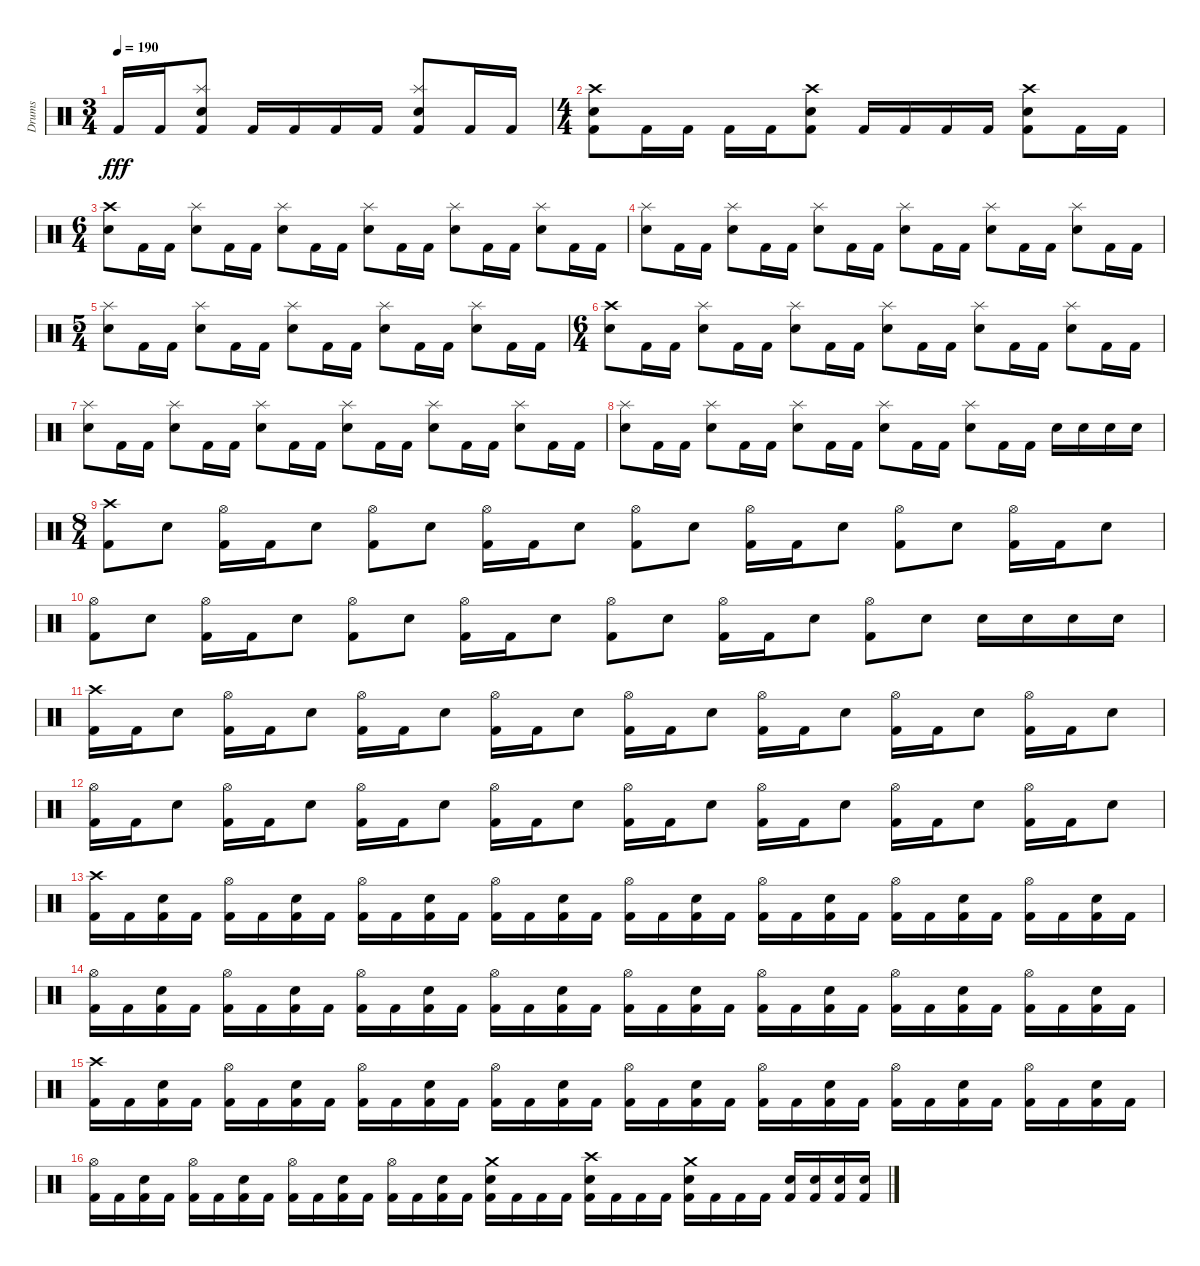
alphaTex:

\track ("Drums" "Drums") {instrument percussion}
\staff {score}
\articulation defaults
\ts (3 4)
\tempo 190
\clef neutral
\ks c "Kick (hit) 2".16{dy fff} "Kick (hit) 2".16
("Splash (hit)" "Snare (hit) 2" "Kick (hit) 2").8 "Kick (hit) 2".16 "Kick (hit) 2".16 "Kick (hit) 2".16 "Kick (hit) 2".16 ("Splash (hit)" "Snare (hit) 2" "Kick (hit) 2").8 "Kick (hit) 2".16 "Kick (hit) 2".16 |
\ts (4 4)
("Crash high (hit)" "Snare (hit) 2" "Kick (hit) 2").8 "Kick (hit) 2".16 "Kick (hit) 2".16 "Kick (hit) 2".16 "Kick (hit) 2".16 ("Crash high (hit)" "Snare (hit) 2" "Kick (hit) 2").8 "Kick (hit) 2".16 "Kick (hit) 2".16 "Kick (hit) 2".16 "Kick (hit) 2".16 ("Crash high (hit)" "Snare (hit) 2" "Kick (hit) 2").8 "Kick (hit) 2".16 "Kick (hit) 2".16 |
\ts (6 4)
("Crash high (hit)" "Snare (hit) 2").8 "Kick (hit) 2".16 "Kick (hit) 2".16 ("Splash (hit)" "Snare (hit) 2").8 "Kick (hit) 2".16 "Kick (hit) 2".16 ("Splash (hit)" "Snare (hit) 2").8 "Kick (hit) 2".16 "Kick (hit) 2".16 ("Splash (hit)" "Snare (hit) 2").8 "Kick (hit) 2".16 "Kick (hit) 2".16 ("Splash (hit)" "Snare (hit) 2").8 "Kick (hit) 2".16 "Kick (hit) 2".16 ("Splash (hit)" "Snare (hit) 2").8 "Kick (hit) 2".16 "Kick (hit) 2".16 |
("Splash (hit)" "Snare (hit) 2").8 "Kick (hit) 2".16 "Kick (hit) 2".16 ("Splash (hit)" "Snare (hit) 2").8 "Kick (hit) 2".16 "Kick (hit) 2".16 ("Splash (hit)" "Snare (hit) 2").8 "Kick (hit) 2".16 "Kick (hit) 2".16 ("Splash (hit)" "Snare (hit) 2").8 "Kick (hit) 2".16 "Kick (hit) 2".16 ("Splash (hit)" "Snare (hit) 2").8 "Kick (hit) 2".16 "Kick (hit) 2".16 ("Splash (hit)" "Snare (hit) 2").8 "Kick (hit) 2".16 "Kick (hit) 2".16 |
\ts (5 4)
("Splash (hit)" "Snare (hit) 2").8 "Kick (hit) 2".16 "Kick (hit) 2".16 ("Splash (hit)" "Snare (hit) 2").8 "Kick (hit) 2".16 "Kick (hit) 2".16 ("Splash (hit)" "Snare (hit) 2").8 "Kick (hit) 2".16 "Kick (hit) 2".16 ("Splash (hit)" "Snare (hit) 2").8 "Kick (hit) 2".16 "Kick (hit) 2".16 ("Splash (hit)" "Snare (hit) 2").8 "Kick (hit) 2".16 "Kick (hit) 2".16 |
\ts (6 4)
("Crash high (hit)" "Snare (hit) 2").8 "Kick (hit) 2".16 "Kick (hit) 2".16 ("Splash (hit)" "Snare (hit) 2").8 "Kick (hit) 2".16 "Kick (hit) 2".16 ("Splash (hit)" "Snare (hit) 2").8 "Kick (hit) 2".16 "Kick (hit) 2".16 ("Splash (hit)" "Snare (hit) 2").8 "Kick (hit) 2".16 "Kick (hit) 2".16 ("Splash (hit)" "Snare (hit) 2").8 "Kick (hit) 2".16 "Kick (hit) 2".16 ("Splash (hit)" "Snare (hit) 2").8 "Kick (hit) 2".16 "Kick (hit) 2".16 |
("Splash (hit)" "Snare (hit) 2").8 "Kick (hit) 2".16 "Kick (hit) 2".16 ("Splash (hit)" "Snare (hit) 2").8 "Kick (hit) 2".16 "Kick (hit) 2".16 ("Splash (hit)" "Snare (hit) 2").8 "Kick (hit) 2".16 "Kick (hit) 2".16 ("Splash (hit)" "Snare (hit) 2").8 "Kick (hit) 2".16 "Kick (hit) 2".16 ("Splash (hit)" "Snare (hit) 2").8 "Kick (hit) 2".16 "Kick (hit) 2".16 ("Splash (hit)" "Snare (hit) 2").8 "Kick (hit) 2".16 "Kick (hit) 2".16 |
("Splash (hit)" "Snare (hit) 2").8 "Kick (hit) 2".16 "Kick (hit) 2".16 ("Splash (hit)" "Snare (hit) 2").8 "Kick (hit) 2".16 "Kick (hit) 2".16 ("Splash (hit)" "Snare (hit) 2").8 "Kick (hit) 2".16 "Kick (hit) 2".16 ("Splash (hit)" "Snare (hit) 2").8 "Kick (hit) 2".16 "Kick (hit) 2".16 ("Splash (hit)" "Snare (hit) 2").8 "Kick (hit) 2".16 "Kick (hit) 2".16 "Snare (hit) 2".16 "Snare (hit) 2".16 "Snare (hit) 2".16 "Snare (hit) 2".16 |
\ts (8 4)
("Crash high (hit)" "Kick (hit) 2").8 "Snare (hit) 2".8 ("Hi-Hat (open)" "Kick (hit) 2").16 "Kick (hit) 2".16 "Snare (hit) 2".8 ("Hi-Hat (open)" "Kick (hit) 2").8 "Snare (hit) 2".8 ("Hi-Hat (open)" "Kick (hit) 2").16 "Kick (hit) 2".16 "Snare (hit) 2".8 ("Hi-Hat (open)" "Kick (hit) 2").8 "Snare (hit) 2".8 ("Hi-Hat (open)" "Kick (hit) 2").16 "Kick (hit) 2".16 "Snare (hit) 2".8 ("Hi-Hat (open)" "Kick (hit) 2").8 "Snare (hit) 2".8 ("Hi-Hat (open)" "Kick (hit) 2").16 "Kick (hit) 2".16 "Snare (hit) 2".8 |
("Hi-Hat (open)" "Kick (hit) 2").8 "Snare (hit) 2".8 ("Hi-Hat (open)" "Kick (hit) 2").16 "Kick (hit) 2".16 "Snare (hit) 2".8 ("Hi-Hat (open)" "Kick (hit) 2").8 "Snare (hit) 2".8 ("Hi-Hat (open)" "Kick (hit) 2").16 "Kick (hit) 2".16 "Snare (hit) 2".8 ("Hi-Hat (open)" "Kick (hit) 2").8 "Snare (hit) 2".8 ("Hi-Hat (open)" "Kick (hit) 2").16 "Kick (hit) 2".16 "Snare (hit) 2".8 ("Hi-Hat (open)" "Kick (hit) 2").8 "Snare (hit) 2".8 "Snare (hit) 2".16 "Snare (hit) 2".16 "Snare (hit) 2".16 "Snare (hit) 2".16 |
("Crash high (hit)" "Kick (hit) 2").16 "Kick (hit) 2".16 "Snare (hit) 2".8 ("Hi-Hat (open)" "Kick (hit) 2").16 "Kick (hit) 2".16 "Snare (hit) 2".8 ("Hi-Hat (open)" "Kick (hit) 2").16 "Kick (hit) 2".16 "Snare (hit) 2".8 ("Hi-Hat (open)" "Kick (hit) 2").16 "Kick (hit) 2".16 "Snare (hit) 2".8 ("Hi-Hat (open)" "Kick (hit) 2").16 "Kick (hit) 2".16 "Snare (hit) 2".8 ("Hi-Hat (open)" "Kick (hit) 2").16 "Kick (hit) 2".16 "Snare (hit) 2".8 ("Hi-Hat (open)" "Kick (hit) 2").16 "Kick (hit) 2".16 "Snare (hit) 2".8 ("Hi-Hat (open)" "Kick (hit) 2").16 "Kick (hit) 2".16 "Snare (hit) 2".8 |
("Hi-Hat (open)" "Kick (hit) 2").16 "Kick (hit) 2".16 "Snare (hit) 2".8 ("Hi-Hat (open)" "Kick (hit) 2").16 "Kick (hit) 2".16 "Snare (hit) 2".8 ("Hi-Hat (open)" "Kick (hit) 2").16 "Kick (hit) 2".16 "Snare (hit) 2".8 ("Hi-Hat (open)" "Kick (hit) 2").16 "Kick (hit) 2".16 "Snare (hit) 2".8 ("Hi-Hat (open)" "Kick (hit) 2").16 "Kick (hit) 2".16 "Snare (hit) 2".8 ("Hi-Hat (open)" "Kick (hit) 2").16 "Kick (hit) 2".16 "Snare (hit) 2".8 ("Hi-Hat (open)" "Kick (hit) 2").16 "Kick (hit) 2".16 "Snare (hit) 2".8 ("Hi-Hat (open)" "Kick (hit) 2").16 "Kick (hit) 2".16 "Snare (hit) 2".8 |
("Crash high (hit)" "Kick (hit) 2").16 "Kick (hit) 2".16 ("Snare (hit) 2" "Kick (hit) 2").16 "Kick (hit) 2".16 ("Hi-Hat (open)" "Kick (hit) 2").16 "Kick (hit) 2".16 ("Snare (hit) 2" "Kick (hit) 2").16 "Kick (hit) 2".16 ("Hi-Hat (open)" "Kick (hit) 2").16 "Kick (hit) 2".16 ("Snare (hit) 2" "Kick (hit) 2").16 "Kick (hit) 2".16 ("Hi-Hat (open)" "Kick (hit) 2").16 "Kick (hit) 2".16 ("Snare (hit) 2" "Kick (hit) 2").16 "Kick (hit) 2".16 ("Hi-Hat (open)" "Kick (hit) 2").16 "Kick (hit) 2".16 ("Snare (hit) 2" "Kick (hit) 2").16 "Kick (hit) 2".16 ("Hi-Hat (open)" "Kick (hit) 2").16 "Kick (hit) 2".16 ("Snare (hit) 2" "Kick (hit) 2").16 "Kick (hit) 2".16 ("Hi-Hat (open)" "Kick (hit) 2").16 "Kick (hit) 2".16 ("Snare (hit) 2" "Kick (hit) 2").16 "Kick (hit) 2".16 ("Hi-Hat (open)" "Kick (hit) 2").16 "Kick (hit) 2".16 ("Snare (hit) 2" "Kick (hit) 2").16 "Kick (hit) 2".16 |
("Hi-Hat (open)" "Kick (hit) 2").16 "Kick (hit) 2".16 ("Snare (hit) 2" "Kick (hit) 2").16 "Kick (hit) 2".16 ("Hi-Hat (open)" "Kick (hit) 2").16 "Kick (hit) 2".16 ("Snare (hit) 2" "Kick (hit) 2").16 "Kick (hit) 2".16 ("Hi-Hat (open)" "Kick (hit) 2").16 "Kick (hit) 2".16 ("Snare (hit) 2" "Kick (hit) 2").16 "Kick (hit) 2".16 ("Hi-Hat (open)" "Kick (hit) 2").16 "Kick (hit) 2".16 ("Snare (hit) 2" "Kick (hit) 2").16 "Kick (hit) 2".16 ("Hi-Hat (open)" "Kick (hit) 2").16 "Kick (hit) 2".16 ("Snare (hit) 2" "Kick (hit) 2").16 "Kick (hit) 2".16 ("Hi-Hat (open)" "Kick (hit) 2").16 "Kick (hit) 2".16 ("Snare (hit) 2" "Kick (hit) 2").16 "Kick (hit) 2".16 ("Hi-Hat (open)" "Kick (hit) 2").16 "Kick (hit) 2".16 ("Snare (hit) 2" "Kick (hit) 2").16 "Kick (hit) 2".16 ("Hi-Hat (open)" "Kick (hit) 2").16 "Kick (hit) 2".16 ("Snare (hit) 2" "Kick (hit) 2").16 "Kick (hit) 2".16 |
("Crash high (hit)" "Kick (hit) 2").16 "Kick (hit) 2".16 ("Snare (hit) 2" "Kick (hit) 2").16 "Kick (hit) 2".16 ("Hi-Hat (open)" "Kick (hit) 2").16 "Kick (hit) 2".16 ("Snare (hit) 2" "Kick (hit) 2").16 "Kick (hit) 2".16 ("Hi-Hat (open)" "Kick (hit) 2").16 "Kick (hit) 2".16 ("Snare (hit) 2" "Kick (hit) 2").16 "Kick (hit) 2".16 ("Hi-Hat (open)" "Kick (hit) 2").16 "Kick (hit) 2".16 ("Snare (hit) 2" "Kick (hit) 2").16 "Kick (hit) 2".16 ("Hi-Hat (open)" "Kick (hit) 2").16 "Kick (hit) 2".16 ("Snare (hit) 2" "Kick (hit) 2").16 "Kick (hit) 2".16 ("Hi-Hat (open)" "Kick (hit) 2").16 "Kick (hit) 2".16 ("Snare (hit) 2" "Kick (hit) 2").16 "Kick (hit) 2".16 ("Hi-Hat (open)" "Kick (hit) 2").16 "Kick (hit) 2".16 ("Snare (hit) 2" "Kick (hit) 2").16 "Kick (hit) 2".16 ("Hi-Hat (open)" "Kick (hit) 2").16 "Kick (hit) 2".16 ("Snare (hit) 2" "Kick (hit) 2").16 "Kick (hit) 2".16 |
("Hi-Hat (open)" "Kick (hit) 2").16 "Kick (hit) 2".16 ("Snare (hit) 2" "Kick (hit) 2").16 "Kick (hit) 2".16 ("Hi-Hat (open)" "Kick (hit) 2").16 "Kick (hit) 2".16 ("Snare (hit) 2" "Kick (hit) 2").16 "Kick (hit) 2".16 ("Hi-Hat (open)" "Kick (hit) 2").16 "Kick (hit) 2".16 ("Snare (hit) 2" "Kick (hit) 2").16 "Kick (hit) 2".16 ("Hi-Hat (open)" "Kick (hit) 2").16 "Kick (hit) 2".16 ("Snare (hit) 2" "Kick (hit) 2").16 "Kick (hit) 2".16 ("Crash medium (hit)" "Snare (hit) 2" "Kick (hit) 2").16 "Kick (hit) 2".16 "Kick (hit) 2".16 "Kick (hit) 2".16 ("Crash high (hit)" "Snare (hit) 2" "Kick (hit) 2").16 "Kick (hit) 2".16 "Kick (hit) 2".16 "Kick (hit) 2".16 ("Crash medium (hit)" "Snare (hit) 2" "Kick (hit) 2").16 "Kick (hit) 2".16 "Kick (hit) 2".16 "Kick (hit) 2".16 ("Snare (hit) 2" "Kick (hit) 2").16 ("Snare (hit) 2" "Kick (hit) 2").16 ("Snare (hit) 2" "Kick (hit) 2").16 ("Snare (hit) 2" "Kick (hit) 2").16
